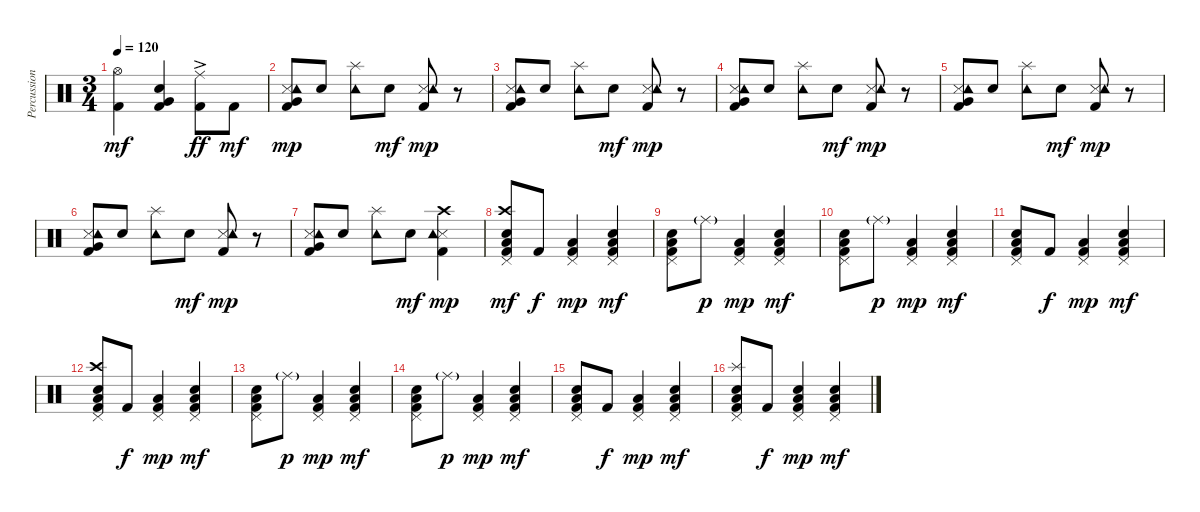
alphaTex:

\track ("Percussion" "Percussion") {instrument percussion}
\staff {score}
\articulation defaults
\ts (3 4)
\tempo 120
\clef neutral
\ks c
("Kick (hit) 2" "Hi-Hat (open)").4{dy mf} ("Snare (hit) 2" "Kick (hit) 2" "Very Low Tom (hit)").4 ("Kick (hit) 2" "Ride (middle)"{ac}).8{dy ff} "Kick (hit) 2".8{dy mf} |
("Snare (side stick) 3" "Kick (hit) 2" "Tambourine (hit)" "Very Low Tom (hit)").8{dy mp} "Snare (hit) 2".8 ("Splash (hit)" "Tambourine (hit)").8 "Snare (hit) 2".8{dy mf} ("Snare (side stick) 3" "Kick (hit) 2" "Tambourine (hit)").8{dy mp} r.8 |
("Snare (side stick) 3" "Kick (hit) 2" "Tambourine (hit)" "Very Low Tom (hit)").8 "Snare (hit) 2".8 ("Splash (hit)" "Tambourine (hit)").8 "Snare (hit) 2".8{dy mf} ("Snare (side stick) 3" "Kick (hit) 2" "Tambourine (hit)").8{dy mp} r.8 |
("Snare (side stick) 3" "Kick (hit) 2" "Tambourine (hit)" "Very Low Tom (hit)").8 "Snare (hit) 2".8 ("Splash (hit)" "Tambourine (hit)").8 "Snare (hit) 2".8{dy mf} ("Snare (side stick) 3" "Kick (hit) 2" "Tambourine (hit)").8{dy mp} r.8 |
("Snare (side stick) 3" "Kick (hit) 2" "Tambourine (hit)" "Very Low Tom (hit)").8 "Snare (hit) 2".8 ("Splash (hit)" "Tambourine (hit)").8 "Snare (hit) 2".8{dy mf} ("Snare (side stick) 3" "Kick (hit) 2" "Tambourine (hit)").8{dy mp} r.8 |
("Snare (side stick) 3" "Kick (hit) 2" "Tambourine (hit)" "Very Low Tom (hit)").8 "Snare (hit) 2".8 ("Splash (hit)" "Tambourine (hit)").8 "Snare (hit) 2".8{dy mf} ("Snare (side stick) 3" "Kick (hit) 2" "Tambourine (hit)").8{dy mp} r.8 |
("Snare (side stick) 3" "Kick (hit) 2" "Tambourine (hit)" "Very Low Tom (hit)").8 "Snare (hit) 2".8 ("Splash (hit)" "Tambourine (hit)").8 "Snare (hit) 2".8{dy mf} ("Snare (side stick) 3" "Kick (hit) 2" "Crash high (hit)" "Tambourine (hit)").4{dy mp} |
("Snare (hit) 2" "Kick (hit) 2" "Crash high (hit)" "Pedal Hi-Hat (hit)" "Low Tom (hit)").8{dy mf} "Kick (hit) 2".8{dy f} ("Kick (hit) 2" "Pedal Hi-Hat (hit)" "Low Floor Tom (hit)").4{dy mp} ("Snare (hit) 2" "Kick (hit) 2" "Pedal Hi-Hat (hit)" "Low Tom (hit)").4{dy mf} |
("Snare (hit) 2" "Kick (hit) 2" "Pedal Hi-Hat (hit)" "Low Tom (hit)").8 "Ride (middle)"{g}.8{dy p} ("Kick (hit) 2" "Pedal Hi-Hat (hit)" "Low Floor Tom (hit)").4{dy mp} ("Snare (hit) 2" "Kick (hit) 2" "Pedal Hi-Hat (hit)" "Low Tom (hit)").4{dy mf} |
("Snare (hit) 2" "Kick (hit) 2" "Pedal Hi-Hat (hit)" "Low Tom (hit)").8 "Ride (middle)"{g}.8{dy p} ("Kick (hit) 2" "Pedal Hi-Hat (hit)" "Low Floor Tom (hit)").4{dy mp} ("Snare (hit) 2" "Kick (hit) 2" "Pedal Hi-Hat (hit)" "Low Tom (hit)").4{dy mf} |
("Snare (hit) 2" "Kick (hit) 2" "Pedal Hi-Hat (hit)" "Low Tom (hit)").8 "Kick (hit) 2".8{dy f} ("Kick (hit) 2" "Pedal Hi-Hat (hit)" "Low Floor Tom (hit)").4{dy mp} ("Snare (hit) 2" "Kick (hit) 2" "Pedal Hi-Hat (hit)" "Low Tom (hit)").4{dy mf} |
("Snare (hit) 2" "Kick (hit) 2" "Crash high (hit)" "Pedal Hi-Hat (hit)" "Low Tom (hit)").8 "Kick (hit) 2".8{dy f} ("Kick (hit) 2" "Pedal Hi-Hat (hit)" "Low Floor Tom (hit)").4{dy mp} ("Snare (hit) 2" "Kick (hit) 2" "Pedal Hi-Hat (hit)" "Low Tom (hit)").4{dy mf} |
("Snare (hit) 2" "Kick (hit) 2" "Pedal Hi-Hat (hit)" "Low Tom (hit)").8 "Ride (middle)"{g}.8{dy p} ("Kick (hit) 2" "Pedal Hi-Hat (hit)" "Low Floor Tom (hit)").4{dy mp} ("Snare (hit) 2" "Kick (hit) 2" "Pedal Hi-Hat (hit)" "Low Tom (hit)").4{dy mf} |
("Snare (hit) 2" "Kick (hit) 2" "Pedal Hi-Hat (hit)" "Low Tom (hit)").8 "Ride (middle)"{g}.8{dy p} ("Kick (hit) 2" "Pedal Hi-Hat (hit)" "Low Floor Tom (hit)").4{dy mp} ("Snare (hit) 2" "Kick (hit) 2" "Pedal Hi-Hat (hit)" "Low Tom (hit)").4{dy mf} |
("Snare (hit) 2" "Kick (hit) 2" "Pedal Hi-Hat (hit)" "Low Tom (hit)").8 "Kick (hit) 2".8{dy f} ("Kick (hit) 2" "Pedal Hi-Hat (hit)" "Low Floor Tom (hit)").4{dy mp} ("Snare (hit) 2" "Kick (hit) 2" "Pedal Hi-Hat (hit)" "Low Tom (hit)").4{dy mf} |
("Snare (hit) 2" "Kick (hit) 2" "Splash (hit)" "Pedal Hi-Hat (hit)" "Low Tom (hit)").8 "Kick (hit) 2".8{dy f} ("Snare (hit) 2" "Kick (hit) 2" "Pedal Hi-Hat (hit)" "Low Floor Tom (hit)").4{dy mp} ("Snare (hit) 2" "Kick (hit) 2" "Pedal Hi-Hat (hit)" "Low Tom (hit)").4{dy mf}
